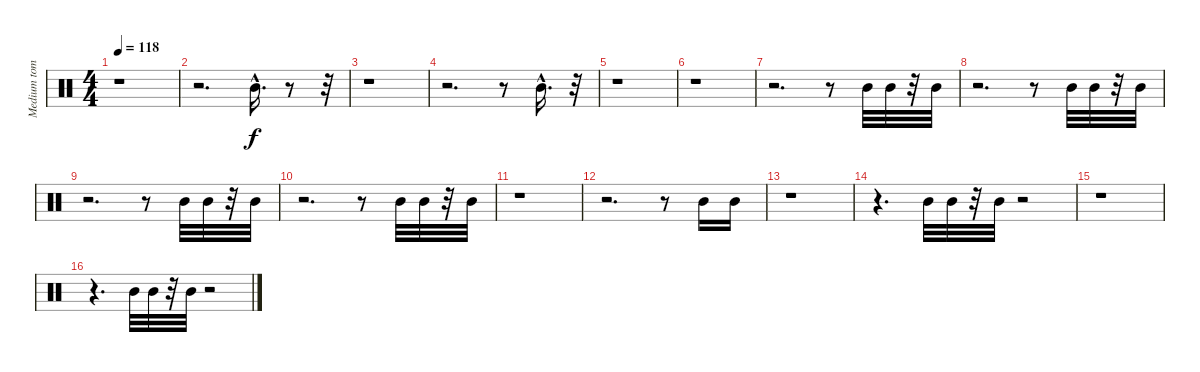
\track ("Medium tom          " "Medium tom") {instrument percussion}
\staff {score}
\articulation defaults
\ts (4 4)
\tempo 118
\clef neutral
\ks c
r.1{dy f} |
r.2{d} "Mid Tom (hit)"{hac}.16{d} r.8 r.32 |
r.1 |
r.2{d} r.8 "Mid Tom (hit)"{hac}.16{d} r.32 |
r.1 |
r.1 |
r.2{d} r.8 "Mid Tom (hit)".32 "Mid Tom (hit)".32 r.32 "Mid Tom (hit)".32 |
r.2{d} r.8 "Mid Tom (hit)".32 "Mid Tom (hit)".32 r.32 "Mid Tom (hit)".32 |
r.2{d} r.8 "Mid Tom (hit)".32 "Mid Tom (hit)".32 r.32 "Mid Tom (hit)".32 |
r.2{d} r.8 "Mid Tom (hit)".32 "Mid Tom (hit)".32 r.32 "Mid Tom (hit)".32 |
r.1 |
r.2{d} r.8 "Mid Tom (hit)".16 "Mid Tom (hit)".16 |
r.1 |
r.4{d} "Mid Tom (hit)".32 "Mid Tom (hit)".32 r.32 "Mid Tom (hit)".32 r.2 |
r.1 |
r.4{d} "Mid Tom (hit)".32 "Mid Tom (hit)".32 r.32 "Mid Tom (hit)".32 r.2
